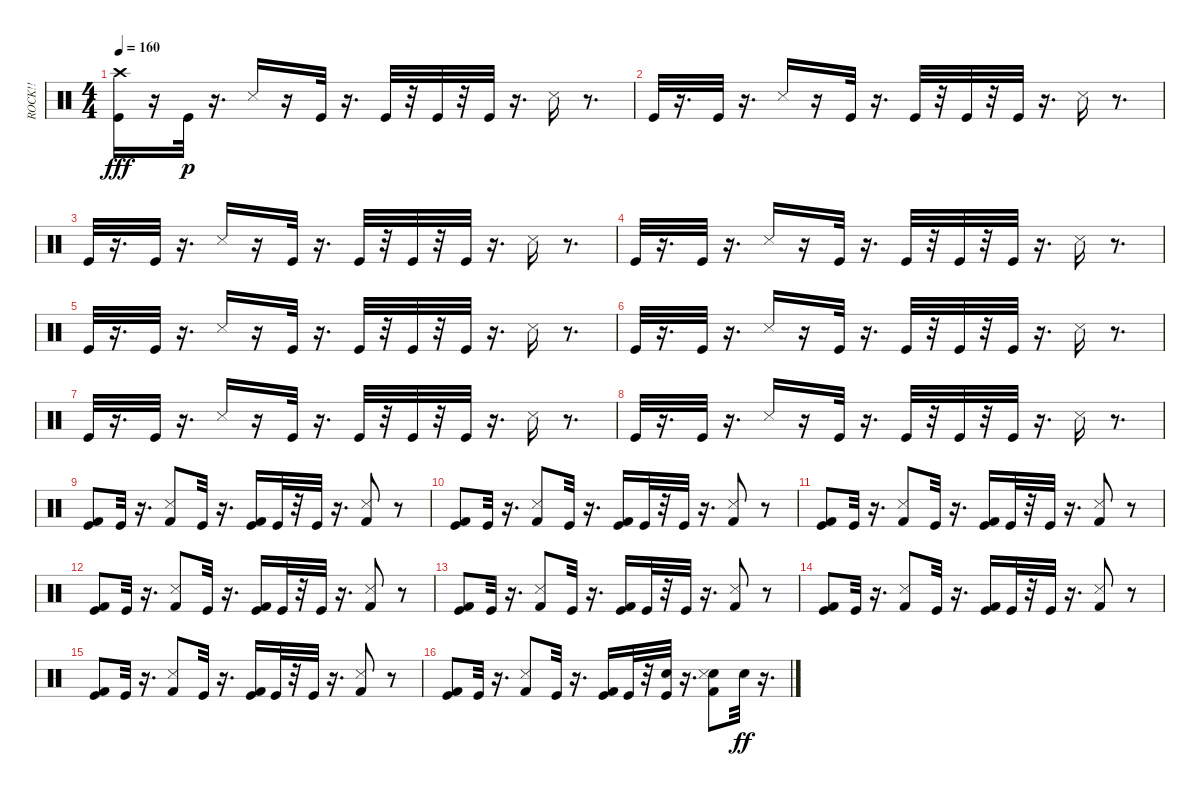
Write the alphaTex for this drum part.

\track ("ROCK!!" "ROCK!!") {instrument percussion}
\staff {score}
\articulation defaults
\ts (4 4)
\tempo 160
\clef neutral
\ks c
("Kick (hit)" "Crash high (hit)").16{dy fff} r.16 "Kick (hit)".32{dy p} r.16{d} "Snare (side stick) 3".16 r.16 "Kick (hit)".32 r.16{d} "Kick (hit)".32 r.32 "Kick (hit)".32 r.32 "Kick (hit)".32 r.16{d} "Snare (side stick) 3".16 r.8{d} |
"Kick (hit)".32 r.16{d} "Kick (hit)".32 r.16{d} "Snare (side stick) 3".16 r.16 "Kick (hit)".32 r.16{d} "Kick (hit)".32 r.32 "Kick (hit)".32 r.32 "Kick (hit)".32 r.16{d} "Snare (side stick) 3".16 r.8{d} |
"Kick (hit)".32 r.16{d} "Kick (hit)".32 r.16{d} "Snare (side stick) 3".16 r.16 "Kick (hit)".32 r.16{d} "Kick (hit)".32 r.32 "Kick (hit)".32 r.32 "Kick (hit)".32 r.16{d} "Snare (side stick) 3".16 r.8{d} |
"Kick (hit)".32 r.16{d} "Kick (hit)".32 r.16{d} "Snare (side stick) 3".16 r.16 "Kick (hit)".32 r.16{d} "Kick (hit)".32 r.32 "Kick (hit)".32 r.32 "Kick (hit)".32 r.16{d} "Snare (side stick) 3".16 r.8{d} |
"Kick (hit)".32 r.16{d} "Kick (hit)".32 r.16{d} "Snare (side stick) 3".16 r.16 "Kick (hit)".32 r.16{d} "Kick (hit)".32 r.32 "Kick (hit)".32 r.32 "Kick (hit)".32 r.16{d} "Snare (side stick) 3".16 r.8{d} |
"Kick (hit)".32 r.16{d} "Kick (hit)".32 r.16{d} "Snare (side stick) 3".16 r.16 "Kick (hit)".32 r.16{d} "Kick (hit)".32 r.32 "Kick (hit)".32 r.32 "Kick (hit)".32 r.16{d} "Snare (side stick) 3".16 r.8{d} |
"Kick (hit)".32 r.16{d} "Kick (hit)".32 r.16{d} "Snare (side stick) 3".16 r.16 "Kick (hit)".32 r.16{d} "Kick (hit)".32 r.32 "Kick (hit)".32 r.32 "Kick (hit)".32 r.16{d} "Snare (side stick) 3".16 r.8{d} |
"Kick (hit)".32 r.16{d} "Kick (hit)".32 r.16{d} "Snare (side stick) 3".16 r.16 "Kick (hit)".32 r.16{d} "Kick (hit)".32 r.32 "Kick (hit)".32 r.32 "Kick (hit)".32 r.16{d} "Snare (side stick) 3".16 r.8{d} |
("Kick (hit) 2" "Kick (hit)").8 "Kick (hit)".32 r.16{d} ("Kick (hit) 2" "Snare (side stick) 3").8 "Kick (hit)".32 r.16{d} ("Kick (hit) 2" "Kick (hit)").16 "Kick (hit)".32 r.32 "Kick (hit)".32 r.16{d} ("Kick (hit) 2" "Snare (side stick) 3").8 r.8 |
("Kick (hit) 2" "Kick (hit)").8 "Kick (hit)".32 r.16{d} ("Kick (hit) 2" "Snare (side stick) 3").8 "Kick (hit)".32 r.16{d} ("Kick (hit) 2" "Kick (hit)").16 "Kick (hit)".32 r.32 "Kick (hit)".32 r.16{d} ("Kick (hit) 2" "Snare (side stick) 3").8 r.8 |
("Kick (hit) 2" "Kick (hit)").8 "Kick (hit)".32 r.16{d} ("Kick (hit) 2" "Snare (side stick) 3").8 "Kick (hit)".32 r.16{d} ("Kick (hit) 2" "Kick (hit)").16 "Kick (hit)".32 r.32 "Kick (hit)".32 r.16{d} ("Kick (hit) 2" "Snare (side stick) 3").8 r.8 |
("Kick (hit) 2" "Kick (hit)").8 "Kick (hit)".32 r.16{d} ("Kick (hit) 2" "Snare (side stick) 3").8 "Kick (hit)".32 r.16{d} ("Kick (hit) 2" "Kick (hit)").16 "Kick (hit)".32 r.32 "Kick (hit)".32 r.16{d} ("Kick (hit) 2" "Snare (side stick) 3").8 r.8 |
("Kick (hit) 2" "Kick (hit)").8 "Kick (hit)".32 r.16{d} ("Kick (hit) 2" "Snare (side stick) 3").8 "Kick (hit)".32 r.16{d} ("Kick (hit) 2" "Kick (hit)").16 "Kick (hit)".32 r.32 "Kick (hit)".32 r.16{d} ("Kick (hit) 2" "Snare (side stick) 3").8 r.8 |
("Kick (hit) 2" "Kick (hit)").8 "Kick (hit)".32 r.16{d} ("Kick (hit) 2" "Snare (side stick) 3").8 "Kick (hit)".32 r.16{d} ("Kick (hit) 2" "Kick (hit)").16 "Kick (hit)".32 r.32 "Kick (hit)".32 r.16{d} ("Kick (hit) 2" "Snare (side stick) 3").8 r.8 |
("Kick (hit) 2" "Kick (hit)").8 "Kick (hit)".32 r.16{d} ("Kick (hit) 2" "Snare (side stick) 3").8 "Kick (hit)".32 r.16{d} ("Kick (hit) 2" "Kick (hit)").16 "Kick (hit)".32 r.32 "Kick (hit)".32 r.16{d} ("Kick (hit) 2" "Snare (side stick) 3").8 r.8 |
("Kick (hit) 2" "Kick (hit)").8 "Kick (hit)".32 r.16{d} ("Kick (hit) 2" "Snare (side stick) 3").8 "Kick (hit)".32 r.16{d} ("Kick (hit) 2" "Kick (hit)").16 "Kick (hit)".32 r.32 ("Electric Snare (hit)" "Kick (hit)").32 r.16{d} ("Kick (hit) 2" "Electric Snare (hit)" "Snare (side stick) 3").8 "Electric Snare (hit)".32{dy ff} r.16{d}
